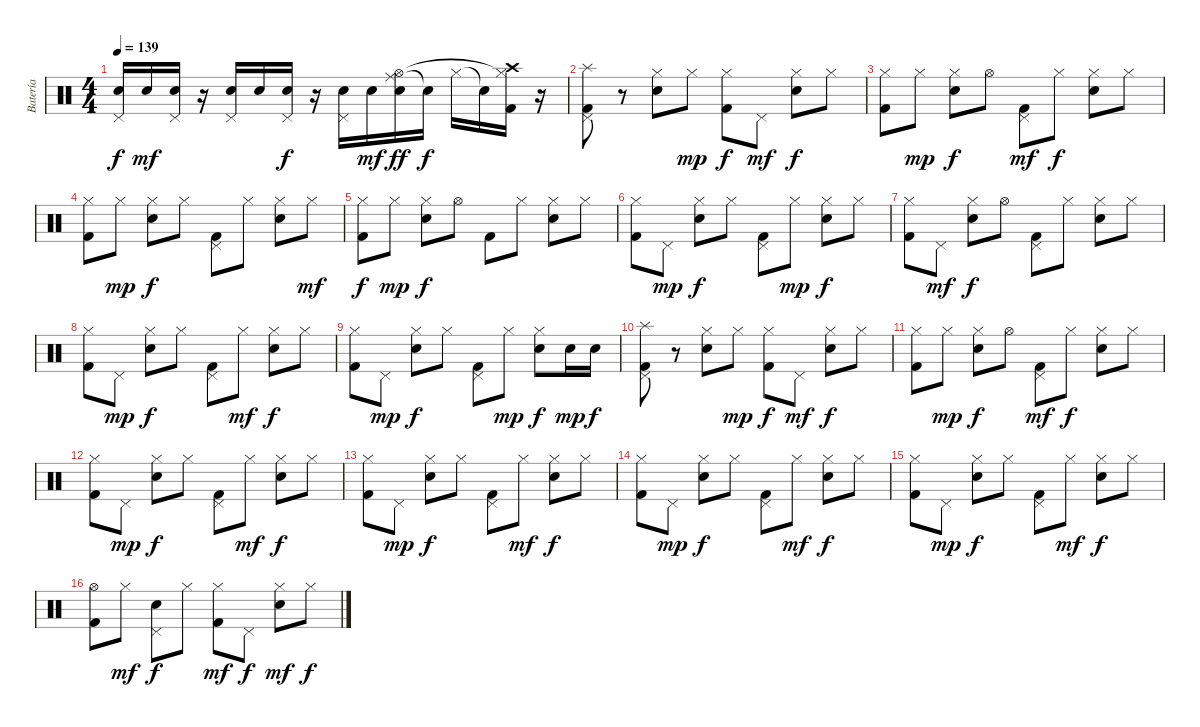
\track ("Batería" "Batería") {instrument percussion}
\staff {score}
\articulation defaults
\ts (4 4)
\tempo 139
\clef neutral
\ks c
("Pedal Hi-Hat (hit)" "Snare (hit) 2").16{dy f} "Snare (hit) 2".16{dy mf} ("Pedal Hi-Hat (hit)" "Snare (hit) 2").16 r.16 ("Pedal Hi-Hat (hit)" "Snare (hit) 2").16 "Snare (hit) 2".16 ("Pedal Hi-Hat (hit)" "Snare (hit) 2").16{dy f} r.16 ("Pedal Hi-Hat (hit)" "Snare (hit) 2").16 "Snare (hit) 2".16{dy mf} ("Ride (middle)" "Hi-Hat (open)" "Snare (hit) 2").16{dy ff} "Snare (hit)"{t}.16{dy f} "Hi-Hat (closed)".16 "Snare (hit)"{t}.16 ("Crash high (hit)" "Hi-Hat (closed)"{t} "Kick (hit) 2").16 r.16 |
("Splash (hit)" "Pedal Hi-Hat (hit)" "Kick (hit) 2").8 r.8 ("Hi-Hat (closed)" "Snare (hit) 2").8 "Hi-Hat (closed)".8{dy mp} ("Hi-Hat (closed)" "Kick (hit) 2").8{dy f} "Pedal Hi-Hat (hit)".8{dy mf} ("Hi-Hat (closed)" "Snare (hit) 2").8{dy f} "Hi-Hat (closed)".8 |
("Hi-Hat (closed)" "Kick (hit) 2").8 "Hi-Hat (closed)".8{dy mp} ("Hi-Hat (closed)" "Snare (hit) 2").8{dy f} "Hi-Hat (open)".8 ("Pedal Hi-Hat (hit)" "Kick (hit) 2").8{dy mf} "Hi-Hat (closed)".8{dy f} ("Hi-Hat (closed)" "Snare (hit) 2").8 "Hi-Hat (closed)".8 |
("Hi-Hat (closed)" "Kick (hit) 2").8 "Hi-Hat (closed)".8{dy mp} ("Hi-Hat (closed)" "Snare (hit) 2").8{dy f} "Hi-Hat (closed)".8 ("Pedal Hi-Hat (hit)" "Kick (hit) 2").8 "Hi-Hat (closed)".8 ("Hi-Hat (closed)" "Snare (hit) 2").8 "Hi-Hat (closed)".8{dy mf} |
("Hi-Hat (closed)" "Kick (hit) 2").8{dy f} "Hi-Hat (closed)".8{dy mp} ("Hi-Hat (closed)" "Snare (hit) 2").8{dy f} "Hi-Hat (open)".8 "Kick (hit) 2".8 "Hi-Hat (closed)".8 ("Hi-Hat (closed)" "Snare (hit) 2").8 "Hi-Hat (closed)".8 |
("Hi-Hat (closed)" "Kick (hit) 2").8 "Pedal Hi-Hat (hit)".8{dy mp} ("Hi-Hat (closed)" "Snare (hit) 2").8{dy f} "Hi-Hat (closed)".8 ("Pedal Hi-Hat (hit)" "Kick (hit) 2").8 "Hi-Hat (closed)".8{dy mp} ("Hi-Hat (closed)" "Snare (hit) 2").8{dy f} "Hi-Hat (closed)".8 |
("Hi-Hat (closed)" "Kick (hit) 2").8 "Pedal Hi-Hat (hit)".8{dy mf} ("Hi-Hat (closed)" "Snare (hit) 2").8{dy f} "Hi-Hat (open)".8 ("Pedal Hi-Hat (hit)" "Kick (hit) 2").8 "Hi-Hat (closed)".8 ("Hi-Hat (closed)" "Snare (hit) 2").8 "Hi-Hat (closed)".8 |
("Hi-Hat (closed)" "Kick (hit) 2").8 "Pedal Hi-Hat (hit)".8{dy mp} ("Hi-Hat (closed)" "Snare (hit) 2").8{dy f} "Hi-Hat (closed)".8 ("Pedal Hi-Hat (hit)" "Kick (hit) 2").8 "Hi-Hat (closed)".8{dy mf} ("Hi-Hat (closed)" "Snare (hit) 2").8{dy f} "Hi-Hat (closed)".8 |
("Hi-Hat (closed)" "Kick (hit) 2").8 "Pedal Hi-Hat (hit)".8{dy mp} ("Hi-Hat (closed)" "Snare (hit) 2").8{dy f} "Hi-Hat (closed)".8 ("Pedal Hi-Hat (hit)" "Kick (hit) 2").8 "Hi-Hat (closed)".8{dy mp} ("Hi-Hat (closed)" "Snare (hit) 2").8{dy f} "Snare (hit) 2".16{dy mp} "Snare (hit) 2".16{dy f} |
("Splash (hit)" "Pedal Hi-Hat (hit)" "Kick (hit) 2").8 r.8 ("Hi-Hat (closed)" "Snare (hit) 2").8 "Hi-Hat (closed)".8{dy mp} ("Hi-Hat (closed)" "Kick (hit) 2").8{dy f} "Pedal Hi-Hat (hit)".8{dy mf} ("Hi-Hat (closed)" "Snare (hit) 2").8{dy f} "Hi-Hat (closed)".8 |
("Hi-Hat (closed)" "Kick (hit) 2").8 "Hi-Hat (closed)".8{dy mp} ("Hi-Hat (closed)" "Snare (hit) 2").8{dy f} "Hi-Hat (open)".8 ("Pedal Hi-Hat (hit)" "Kick (hit) 2").8{dy mf} "Hi-Hat (closed)".8{dy f} ("Hi-Hat (closed)" "Snare (hit) 2").8 "Hi-Hat (closed)".8 |
("Hi-Hat (closed)" "Kick (hit) 2").8 "Pedal Hi-Hat (hit)".8{dy mp} ("Hi-Hat (closed)" "Snare (hit) 2").8{dy f} "Hi-Hat (closed)".8 ("Pedal Hi-Hat (hit)" "Kick (hit) 2").8 "Hi-Hat (closed)".8{dy mf} ("Hi-Hat (closed)" "Snare (hit) 2").8{dy f} "Hi-Hat (closed)".8 |
("Hi-Hat (closed)" "Kick (hit) 2").8 "Pedal Hi-Hat (hit)".8{dy mp} ("Hi-Hat (closed)" "Snare (hit) 2").8{dy f} "Hi-Hat (closed)".8 ("Pedal Hi-Hat (hit)" "Kick (hit) 2").8 "Hi-Hat (closed)".8{dy mf} ("Hi-Hat (closed)" "Snare (hit) 2").8{dy f} "Hi-Hat (closed)".8 |
("Hi-Hat (closed)" "Kick (hit) 2").8 "Pedal Hi-Hat (hit)".8{dy mp} ("Hi-Hat (closed)" "Snare (hit) 2").8{dy f} "Hi-Hat (closed)".8 ("Pedal Hi-Hat (hit)" "Kick (hit) 2").8 "Hi-Hat (closed)".8{dy mf} ("Hi-Hat (closed)" "Snare (hit) 2").8{dy f} "Hi-Hat (closed)".8 |
("Hi-Hat (closed)" "Kick (hit) 2").8 "Pedal Hi-Hat (hit)".8{dy mp} ("Hi-Hat (closed)" "Snare (hit) 2").8{dy f} "Hi-Hat (closed)".8 ("Pedal Hi-Hat (hit)" "Kick (hit) 2").8 "Hi-Hat (closed)".8{dy mf} ("Hi-Hat (closed)" "Snare (hit) 2").8{dy f} "Hi-Hat (closed)".8 |
("Hi-Hat (open)" "Kick (hit) 2").8 "Hi-Hat (closed)".8{dy mf} ("Pedal Hi-Hat (hit)" "Snare (hit) 2").8{dy f} "Hi-Hat (closed)".8 ("Hi-Hat (closed)" "Kick (hit) 2").8{dy mf} "Pedal Hi-Hat (hit)".8{dy f} ("Hi-Hat (closed)" "Snare (hit) 2").8{dy mf} "Hi-Hat (closed)".8{dy f}
